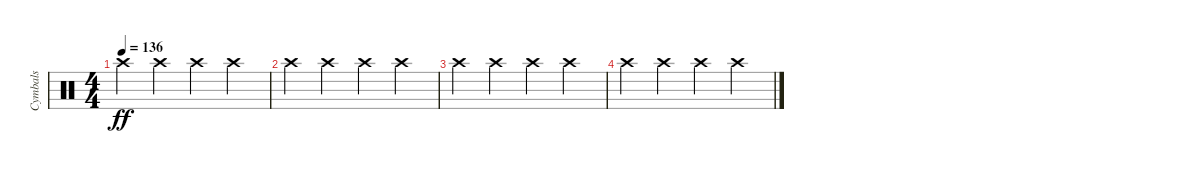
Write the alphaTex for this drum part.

\track ("Cymbals" "Cymbals") {instrument percussion}
\staff {score}
\articulation defaults
\ts (4 4)
\tempo 136
\clef neutral
\ks c "Crash high (hit)".4{dy ff} "Crash high (hit)".4 "Crash high (hit)".4 "Crash high (hit)".4
|
"Crash high (hit)".4{volume 0} "Crash high (hit)".4 "Crash high (hit)".4 "Crash high (hit)".4 |
"Crash high (hit)".4 "Crash high (hit)".4 "Crash high (hit)".4 "Crash high (hit)".4 |
"Crash high (hit)".4 "Crash high (hit)".4 "Crash high (hit)".4 "Crash high (hit)".4
